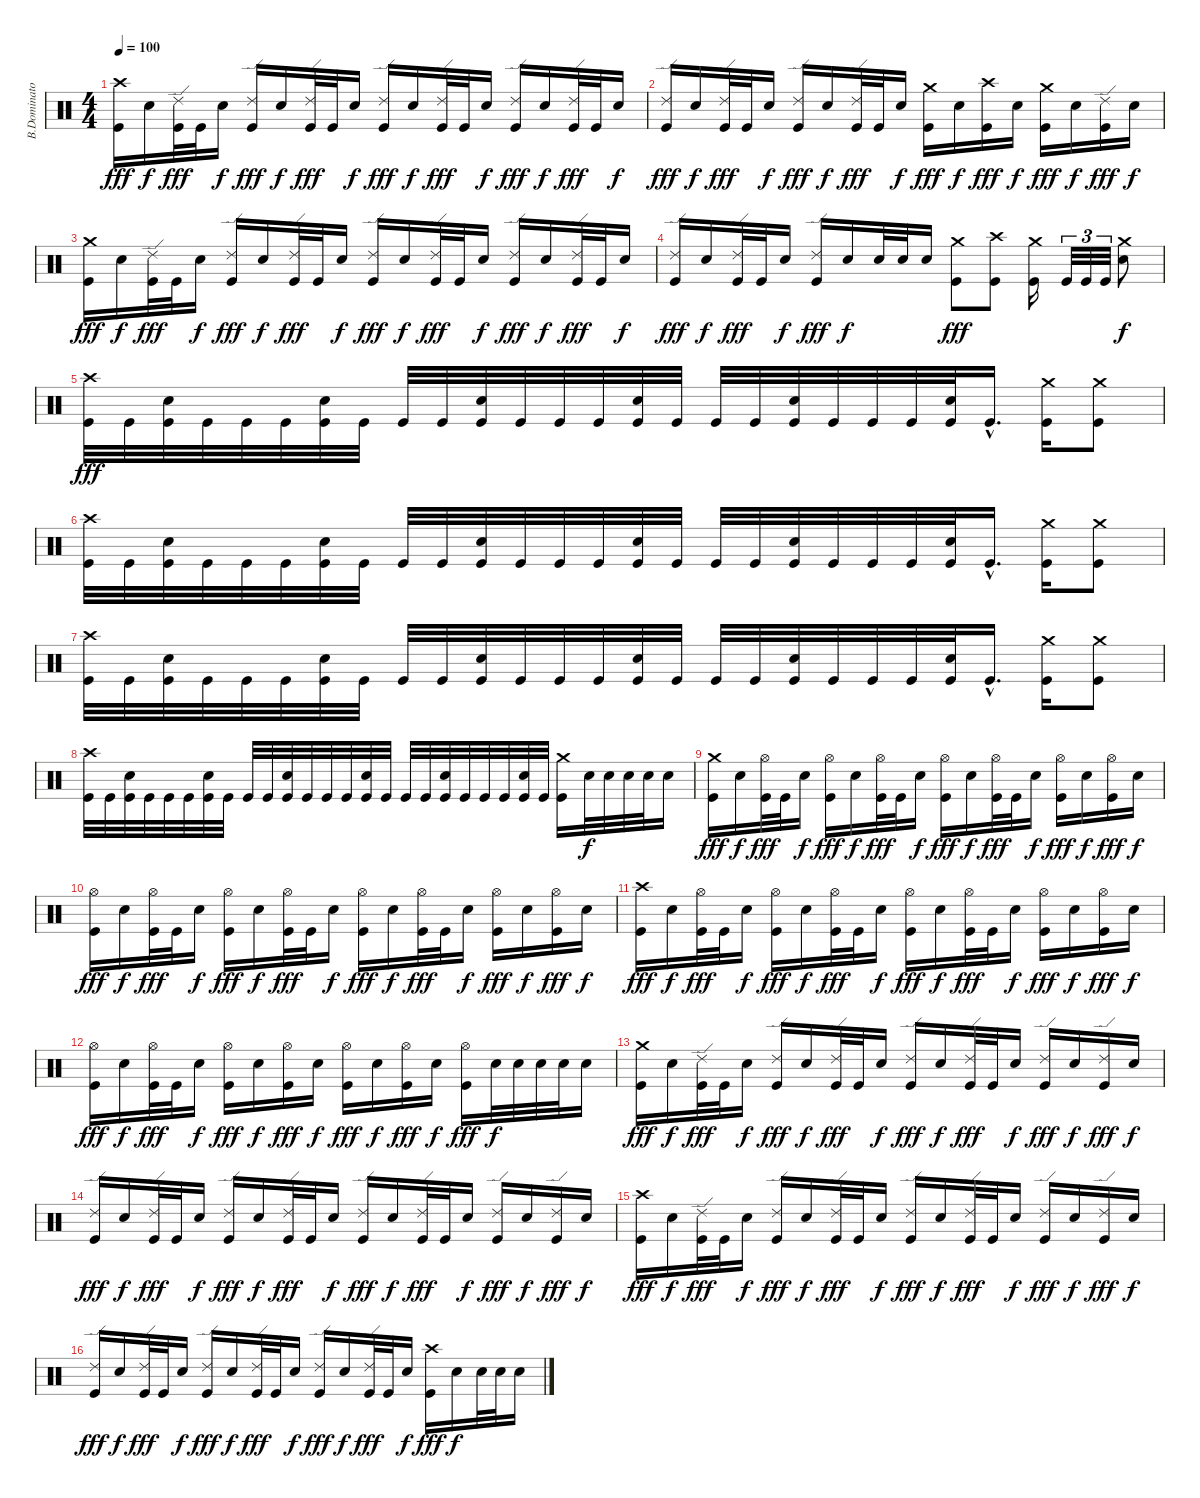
\track ("B.Dominator" "B.Dominato") {instrument percussion}
\staff {score}
\articulation defaults
\ts (4 4)
\tempo 100
\clef neutral
\ks c
("Crash high (hit)" "Kick (hit)").16{dy fff} "Snare (hit) 2".16{dy f} ("Ride (edge) 2" "Kick (hit)").32{dy fff} "Kick (hit)".32 "Snare (hit) 2".16{dy f} ("Ride (edge) 2" "Kick (hit)").16{dy fff} "Snare (hit) 2".16{dy f} ("Ride (edge) 2" "Kick (hit)").32{dy fff} "Kick (hit)".32 "Snare (hit) 2".16{dy f} ("Ride (edge) 2" "Kick (hit)").16{dy fff} "Snare (hit) 2".16{dy f} ("Ride (edge) 2" "Kick (hit)").32{dy fff} "Kick (hit)".32 "Snare (hit) 2".16{dy f} ("Ride (edge) 2" "Kick (hit)").16{dy fff} "Snare (hit) 2".16{dy f} ("Ride (edge) 2" "Kick (hit)").32{dy fff} "Kick (hit)".32 "Snare (hit) 2".16{dy f} |
("Ride (edge) 2" "Kick (hit)").16{dy fff} "Snare (hit) 2".16{dy f} ("Ride (edge) 2" "Kick (hit)").32{dy fff} "Kick (hit)".32 "Snare (hit) 2".16{dy f} ("Ride (edge) 2" "Kick (hit)").16{dy fff} "Snare (hit) 2".16{dy f} ("Ride (edge) 2" "Kick (hit)").32{dy fff} "Kick (hit)".32 "Snare (hit) 2".16{dy f} ("Crash medium (hit)" "Kick (hit)").16{dy fff} "Snare (hit) 2".16{dy f} ("Crash high (hit)" "Kick (hit)").16{dy fff} "Snare (hit) 2".16{dy f} ("Crash medium (hit)" "Kick (hit)").16{dy fff} "Snare (hit) 2".16{dy f} ("Ride (edge) 2" "Kick (hit)").16{dy fff} "Snare (hit) 2".16{dy f} |
("Crash medium (hit)" "Kick (hit)").16{dy fff} "Snare (hit) 2".16{dy f} ("Ride (edge) 2" "Kick (hit)").32{dy fff} "Kick (hit)".32 "Snare (hit) 2".16{dy f} ("Ride (edge) 2" "Kick (hit)").16{dy fff} "Snare (hit) 2".16{dy f} ("Ride (edge) 2" "Kick (hit)").32{dy fff} "Kick (hit)".32 "Snare (hit) 2".16{dy f} ("Ride (edge) 2" "Kick (hit)").16{dy fff} "Snare (hit) 2".16{dy f} ("Ride (edge) 2" "Kick (hit)").32{dy fff} "Kick (hit)".32 "Snare (hit) 2".16{dy f} ("Ride (edge) 2" "Kick (hit)").16{dy fff} "Snare (hit) 2".16{dy f} ("Ride (edge) 2" "Kick (hit)").32{dy fff} "Kick (hit)".32 "Snare (hit) 2".16{dy f} |
("Ride (edge) 2" "Kick (hit)").16{dy fff} "Snare (hit) 2".16{dy f} ("Ride (edge) 2" "Kick (hit)").32{dy fff} "Kick (hit)".32 "Snare (hit) 2".16{dy f} ("Ride (edge) 2" "Kick (hit)").16{dy fff} "Snare (hit) 2".16{dy f} "Snare (hit) 2".32 "Snare (hit) 2".32 "Snare (hit) 2".16 ("Crash medium (hit)" "Kick (hit)").8{dy fff} ("Crash high (hit)" "Kick (hit)").8 ("Crash medium (hit)" "Kick (hit)").16 "Kick (hit)".32{tu (3 2)} "Kick (hit)".32{tu (3 2)} "Kick (hit)".32{tu (3 2)} ("Crash medium (hit)" "Snare (hit) 2").8{dy f} |
("Crash high (hit)" "Kick (hit)").32{dy fff} "Kick (hit)".32 ("Snare (hit) 2" "Kick (hit)").32 "Kick (hit)".32 "Kick (hit)".32 "Kick (hit)".32 ("Snare (hit) 2" "Kick (hit)").32 "Kick (hit)".32 "Kick (hit)".32 "Kick (hit)".32 ("Snare (hit) 2" "Kick (hit)").32 "Kick (hit)".32 "Kick (hit)".32 "Kick (hit)".32 ("Snare (hit) 2" "Kick (hit)").32 "Kick (hit)".32 "Kick (hit)".32 "Kick (hit)".32 ("Snare (hit) 2" "Kick (hit)").32 "Kick (hit)".32 "Kick (hit)".32 "Kick (hit)".32 ("Snare (hit) 2" "Kick (hit)").32 "Kick (hit)"{hac}.16{d} ("Crash medium (hit)" "Kick (hit)").16 ("Crash medium (hit)" "Kick (hit)").8 |
("Crash high (hit)" "Kick (hit)").32 "Kick (hit)".32 ("Snare (hit) 2" "Kick (hit)").32 "Kick (hit)".32 "Kick (hit)".32 "Kick (hit)".32 ("Snare (hit) 2" "Kick (hit)").32 "Kick (hit)".32 "Kick (hit)".32 "Kick (hit)".32 ("Snare (hit) 2" "Kick (hit)").32 "Kick (hit)".32 "Kick (hit)".32 "Kick (hit)".32 ("Snare (hit) 2" "Kick (hit)").32 "Kick (hit)".32 "Kick (hit)".32 "Kick (hit)".32 ("Snare (hit) 2" "Kick (hit)").32 "Kick (hit)".32 "Kick (hit)".32 "Kick (hit)".32 ("Snare (hit) 2" "Kick (hit)").32 "Kick (hit)"{hac}.16{d} ("Crash medium (hit)" "Kick (hit)").16 ("Crash medium (hit)" "Kick (hit)").8 |
("Crash high (hit)" "Kick (hit)").32 "Kick (hit)".32 ("Snare (hit) 2" "Kick (hit)").32 "Kick (hit)".32 "Kick (hit)".32 "Kick (hit)".32 ("Snare (hit) 2" "Kick (hit)").32 "Kick (hit)".32 "Kick (hit)".32 "Kick (hit)".32 ("Snare (hit) 2" "Kick (hit)").32 "Kick (hit)".32 "Kick (hit)".32 "Kick (hit)".32 ("Snare (hit) 2" "Kick (hit)").32 "Kick (hit)".32 "Kick (hit)".32 "Kick (hit)".32 ("Snare (hit) 2" "Kick (hit)").32 "Kick (hit)".32 "Kick (hit)".32 "Kick (hit)".32 ("Snare (hit) 2" "Kick (hit)").32 "Kick (hit)"{hac}.16{d} ("Crash medium (hit)" "Kick (hit)").16 ("Crash medium (hit)" "Kick (hit)").8 |
("Crash high (hit)" "Kick (hit)").32 "Kick (hit)".32 ("Snare (hit) 2" "Kick (hit)").32 "Kick (hit)".32 "Kick (hit)".32 "Kick (hit)".32 ("Snare (hit) 2" "Kick (hit)").32 "Kick (hit)".32 "Kick (hit)".32 "Kick (hit)".32 ("Snare (hit) 2" "Kick (hit)").32 "Kick (hit)".32 "Kick (hit)".32 "Kick (hit)".32 ("Snare (hit) 2" "Kick (hit)").32 "Kick (hit)".32 "Kick (hit)".32 "Kick (hit)".32 ("Snare (hit) 2" "Kick (hit)").32 "Kick (hit)".32 "Kick (hit)".32 "Kick (hit)".32 ("Snare (hit) 2" "Kick (hit)").32 "Kick (hit)".32 ("Crash medium (hit)" "Kick (hit)").16 "Snare (hit) 2".32{dy f} "Snare (hit) 2".32 "Snare (hit) 2".32 "Snare (hit) 2".32 "Snare (hit) 2".16 |
("Crash medium (hit)" "Kick (hit)").16{dy fff} "Snare (hit) 2".16{dy f} ("Hi-Hat (open)" "Kick (hit)").32{dy fff} "Kick (hit)".32 "Snare (hit) 2".16{dy f} ("Hi-Hat (open)" "Kick (hit)").16{dy fff} "Snare (hit) 2".16{dy f} ("Hi-Hat (open)" "Kick (hit)").32{dy fff} "Kick (hit)".32 "Snare (hit) 2".16{dy f} ("Hi-Hat (open)" "Kick (hit)").16{dy fff} "Snare (hit) 2".16{dy f} ("Hi-Hat (open)" "Kick (hit)").32{dy fff} "Kick (hit)".32 "Snare (hit) 2".16{dy f} ("Hi-Hat (open)" "Kick (hit)").16{dy fff} "Snare (hit) 2".16{dy f} ("Hi-Hat (open)" "Kick (hit)").16{dy fff} "Snare (hit) 2".16{dy f} |
("Hi-Hat (open)" "Kick (hit)").16{dy fff} "Snare (hit) 2".16{dy f} ("Hi-Hat (open)" "Kick (hit)").32{dy fff} "Kick (hit)".32 "Snare (hit) 2".16{dy f} ("Hi-Hat (open)" "Kick (hit)").16{dy fff} "Snare (hit) 2".16{dy f} ("Hi-Hat (open)" "Kick (hit)").32{dy fff} "Kick (hit)".32 "Snare (hit) 2".16{dy f} ("Hi-Hat (open)" "Kick (hit)").16{dy fff} "Snare (hit) 2".16{dy f} ("Hi-Hat (open)" "Kick (hit)").32{dy fff} "Kick (hit)".32 "Snare (hit) 2".16{dy f} ("Hi-Hat (open)" "Kick (hit)").16{dy fff} "Snare (hit) 2".16{dy f} ("Hi-Hat (open)" "Kick (hit)").16{dy fff} "Snare (hit) 2".16{dy f} |
("Crash high (hit)" "Kick (hit)").16{dy fff} "Snare (hit) 2".16{dy f} ("Hi-Hat (open)" "Kick (hit)").32{dy fff} "Kick (hit)".32 "Snare (hit) 2".16{dy f} ("Hi-Hat (open)" "Kick (hit)").16{dy fff} "Snare (hit) 2".16{dy f} ("Hi-Hat (open)" "Kick (hit)").32{dy fff} "Kick (hit)".32 "Snare (hit) 2".16{dy f} ("Hi-Hat (open)" "Kick (hit)").16{dy fff} "Snare (hit) 2".16{dy f} ("Hi-Hat (open)" "Kick (hit)").32{dy fff} "Kick (hit)".32 "Snare (hit) 2".16{dy f} ("Hi-Hat (open)" "Kick (hit)").16{dy fff} "Snare (hit) 2".16{dy f} ("Hi-Hat (open)" "Kick (hit)").16{dy fff} "Snare (hit) 2".16{dy f} |
("Hi-Hat (open)" "Kick (hit)").16{dy fff} "Snare (hit) 2".16{dy f} ("Hi-Hat (open)" "Kick (hit)").32{dy fff} "Kick (hit)".32 "Snare (hit) 2".16{dy f} ("Hi-Hat (open)" "Kick (hit)").16{dy fff} "Snare (hit) 2".16{dy f} ("Hi-Hat (open)" "Kick (hit)").16{dy fff} "Snare (hit) 2".16{dy f} ("Hi-Hat (open)" "Kick (hit)").16{dy fff} "Snare (hit) 2".16{dy f} ("Hi-Hat (open)" "Kick (hit)").16{dy fff} "Snare (hit) 2".16{dy f} ("Hi-Hat (open)" "Kick (hit)").16{dy fff} "Snare (hit) 2".32{dy f} "Snare (hit) 2".32 "Snare (hit) 2".32 "Snare (hit) 2".32 "Snare (hit) 2".16 |
("Crash medium (hit)" "Kick (hit)").16{dy fff} "Snare (hit) 2".16{dy f} ("Ride (edge) 2" "Kick (hit)").32{dy fff} "Kick (hit)".32 "Snare (hit) 2".16{dy f} ("Ride (edge) 2" "Kick (hit)").16{dy fff} "Snare (hit) 2".16{dy f} ("Ride (edge) 2" "Kick (hit)").32{dy fff} "Kick (hit)".32 "Snare (hit) 2".16{dy f} ("Ride (edge) 2" "Kick (hit)").16{dy fff} "Snare (hit) 2".16{dy f} ("Ride (edge) 2" "Kick (hit)").32{dy fff} "Kick (hit)".32 "Snare (hit) 2".16{dy f} ("Ride (edge) 2" "Kick (hit)").16{dy fff} "Snare (hit) 2".16{dy f} ("Ride (edge) 2" "Kick (hit)").16{dy fff} "Snare (hit) 2".16{dy f} |
("Ride (edge) 2" "Kick (hit)").16{dy fff} "Snare (hit) 2".16{dy f} ("Ride (edge) 2" "Kick (hit)").32{dy fff} "Kick (hit)".32 "Snare (hit) 2".16{dy f} ("Ride (edge) 2" "Kick (hit)").16{dy fff} "Snare (hit) 2".16{dy f} ("Ride (edge) 2" "Kick (hit)").32{dy fff} "Kick (hit)".32 "Snare (hit) 2".16{dy f} ("Ride (edge) 2" "Kick (hit)").16{dy fff} "Snare (hit) 2".16{dy f} ("Ride (edge) 2" "Kick (hit)").32{dy fff} "Kick (hit)".32 "Snare (hit) 2".16{dy f} ("Ride (edge) 2" "Kick (hit)").16{dy fff} "Snare (hit) 2".16{dy f} ("Ride (edge) 2" "Kick (hit)").16{dy fff} "Snare (hit) 2".16{dy f} |
("Crash high (hit)" "Kick (hit)").16{dy fff} "Snare (hit) 2".16{dy f} ("Ride (edge) 2" "Kick (hit)").32{dy fff} "Kick (hit)".32 "Snare (hit) 2".16{dy f} ("Ride (edge) 2" "Kick (hit)").16{dy fff} "Snare (hit) 2".16{dy f} ("Ride (edge) 2" "Kick (hit)").32{dy fff} "Kick (hit)".32 "Snare (hit) 2".16{dy f} ("Ride (edge) 2" "Kick (hit)").16{dy fff} "Snare (hit) 2".16{dy f} ("Ride (edge) 2" "Kick (hit)").32{dy fff} "Kick (hit)".32 "Snare (hit) 2".16{dy f} ("Ride (edge) 2" "Kick (hit)").16{dy fff} "Snare (hit) 2".16{dy f} ("Ride (edge) 2" "Kick (hit)").16{dy fff} "Snare (hit) 2".16{dy f} |
("Ride (edge) 2" "Kick (hit)").16{dy fff} "Snare (hit) 2".16{dy f} ("Ride (edge) 2" "Kick (hit)").32{dy fff} "Kick (hit)".32 "Snare (hit) 2".16{dy f} ("Ride (edge) 2" "Kick (hit)").16{dy fff} "Snare (hit) 2".16{dy f} ("Ride (edge) 2" "Kick (hit)").32{dy fff} "Kick (hit)".32 "Snare (hit) 2".16{dy f} ("Ride (edge) 2" "Kick (hit)").16{dy fff} "Snare (hit) 2".16{dy f} ("Ride (edge) 2" "Kick (hit)").32{dy fff} "Kick (hit)".32 "Snare (hit) 2".16{dy f} ("Crash high (hit)" "Kick (hit)").16{dy fff} "Snare (hit) 2".16{dy f} "Snare (hit) 2".32 "Snare (hit) 2".32 "Snare (hit) 2".16
